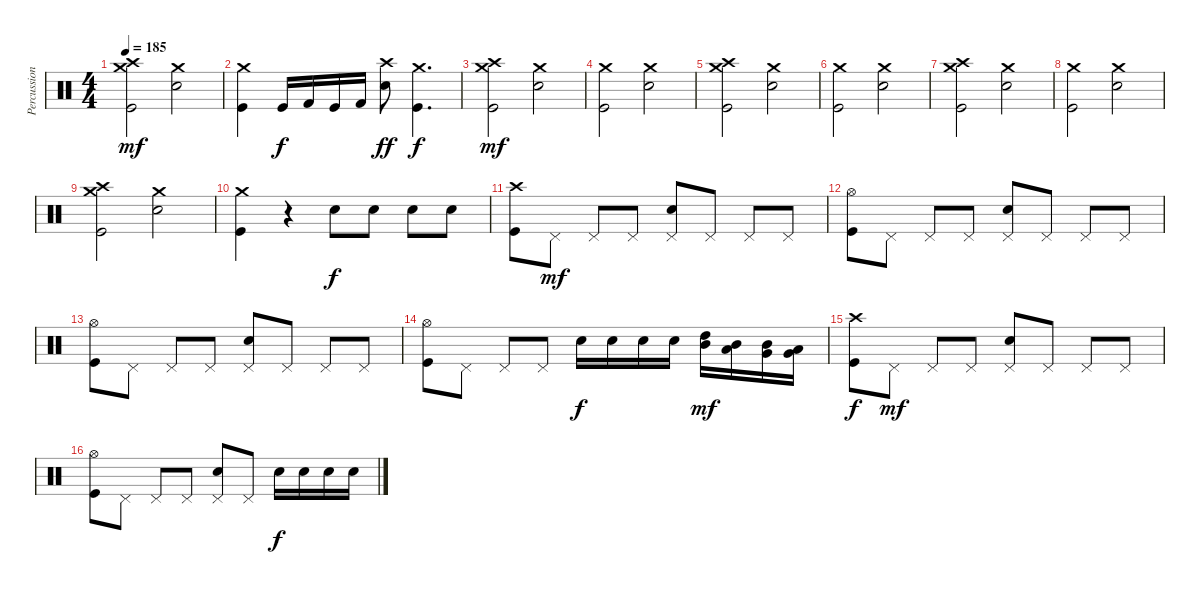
\track ("Percussions" "Percussion") {instrument percussion}
\staff {score}
\articulation defaults
\ts (4 4)
\tempo 185
\clef neutral
\ks c
("Kick (hit)" "Crash medium (hit)" "Crash high (hit)").2{dy mf} ("Electric Snare (hit)" "Crash medium (hit)").2 |
("Kick (hit)" "Crash medium (hit)").4 "Kick (hit)".16{dy f} "Kick (hit) 2".16 "Kick (hit)".16 "Kick (hit) 2".16 ("Electric Snare (hit)" "Crash high (hit)").8{dy ff} ("Kick (hit)" "Crash medium (hit)").4{d dy f} |
("Kick (hit)" "Crash medium (hit)" "Crash high (hit)").2{dy mf} ("Electric Snare (hit)" "Crash medium (hit)").2 |
("Kick (hit)" "Crash medium (hit)").2 ("Electric Snare (hit)" "Crash medium (hit)").2 |
("Kick (hit)" "Crash medium (hit)" "Crash high (hit)").2 ("Electric Snare (hit)" "Crash medium (hit)").2 |
("Kick (hit)" "Crash medium (hit)").2 ("Electric Snare (hit)" "Crash medium (hit)").2 |
("Kick (hit)" "Crash medium (hit)" "Crash high (hit)").2 ("Electric Snare (hit)" "Crash medium (hit)").2 |
("Kick (hit)" "Crash medium (hit)").2 ("Electric Snare (hit)" "Crash medium (hit)").2 |
("Kick (hit)" "Crash medium (hit)" "Crash high (hit)").2 ("Electric Snare (hit)" "Crash medium (hit)").2 |
("Kick (hit)" "Crash medium (hit)").4 r.4 "Electric Snare (hit)".8{dy f} "Electric Snare (hit)".8 "Electric Snare (hit)".8 "Electric Snare (hit)".8 |
("Kick (hit)" "Crash high (hit)").8 "Pedal Hi-Hat (hit)".8{dy mf} "Pedal Hi-Hat (hit)".8 "Pedal Hi-Hat (hit)".8 ("Electric Snare (hit)" "Pedal Hi-Hat (hit)").8 "Pedal Hi-Hat (hit)".8 "Pedal Hi-Hat (hit)".8 "Pedal Hi-Hat (hit)".8 |
("Kick (hit)" "Hi-Hat (open)").8 "Pedal Hi-Hat (hit)".8 "Pedal Hi-Hat (hit)".8 "Pedal Hi-Hat (hit)".8 ("Electric Snare (hit)" "Pedal Hi-Hat (hit)").8 "Pedal Hi-Hat (hit)".8 "Pedal Hi-Hat (hit)".8 "Pedal Hi-Hat (hit)".8 |
("Kick (hit)" "Hi-Hat (open)").8 "Pedal Hi-Hat (hit)".8 "Pedal Hi-Hat (hit)".8 "Pedal Hi-Hat (hit)".8 ("Electric Snare (hit)" "Pedal Hi-Hat (hit)").8 "Pedal Hi-Hat (hit)".8 "Pedal Hi-Hat (hit)".8 "Pedal Hi-Hat (hit)".8 |
("Kick (hit)" "Hi-Hat (open)").8 "Pedal Hi-Hat (hit)".8 "Pedal Hi-Hat (hit)".8 "Pedal Hi-Hat (hit)".8 "Electric Snare (hit)".16{dy f} "Electric Snare (hit)".16 "Electric Snare (hit)".16 "Electric Snare (hit)".16 ("Mid Tom (hit)" "High Tom (hit)").16{dy mf} ("Low Tom (hit)" "Mid Tom (hit)").16 ("Very Low Tom (hit)" "Mid Tom (hit)").16 ("Very Low Tom (hit)" "Low Tom (hit)").16 |
("Kick (hit)" "Crash high (hit)").8{dy f} "Pedal Hi-Hat (hit)".8{dy mf} "Pedal Hi-Hat (hit)".8 "Pedal Hi-Hat (hit)".8 ("Electric Snare (hit)" "Pedal Hi-Hat (hit)").8 "Pedal Hi-Hat (hit)".8 "Pedal Hi-Hat (hit)".8 "Pedal Hi-Hat (hit)".8 |
("Kick (hit)" "Hi-Hat (open)").8 "Pedal Hi-Hat (hit)".8 "Pedal Hi-Hat (hit)".8 "Pedal Hi-Hat (hit)".8 ("Electric Snare (hit)" "Pedal Hi-Hat (hit)").8 "Pedal Hi-Hat (hit)".8 "Electric Snare (hit)".16{dy f} "Electric Snare (hit)".16 "Electric Snare (hit)".16 "Electric Snare (hit)".16
